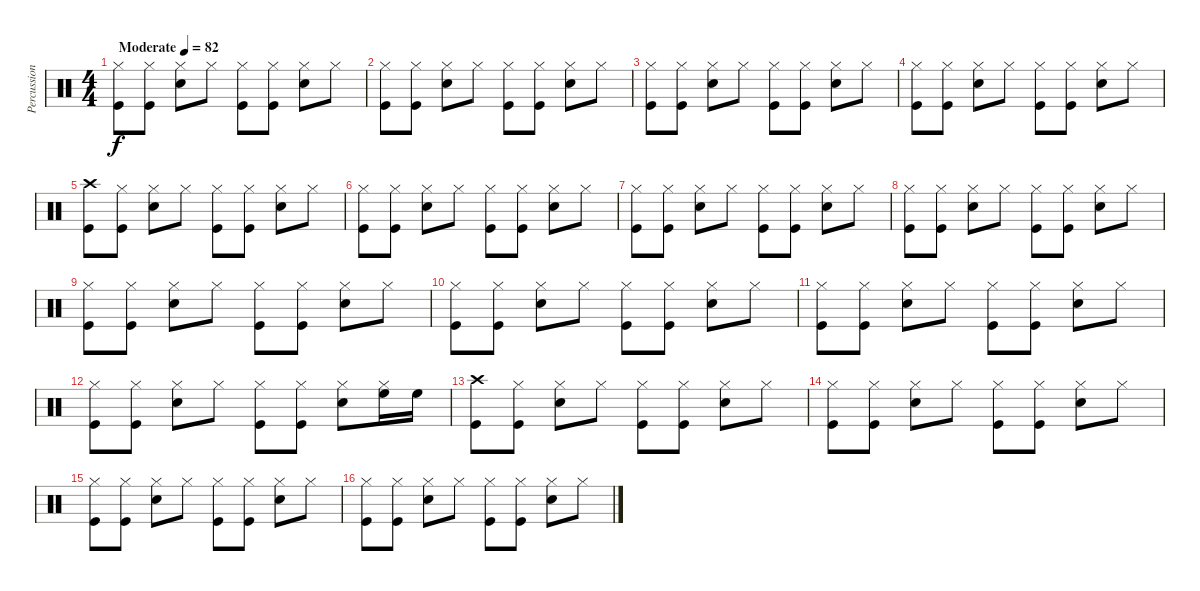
\track ("Percussioni" "Percussion") {instrument percussion}
\staff {score}
\articulation defaults
\ts (4 4)
\tempo (82 "Moderate")
\clef neutral
\ks c
("Hi-Hat (closed)" "Kick (hit)").8{dy f} ("Hi-Hat (closed)" "Kick (hit)").8 ("Hi-Hat (closed)" "Snare (hit) 2").8 "Hi-Hat (closed)".8 ("Hi-Hat (closed)" "Kick (hit)").8 ("Hi-Hat (closed)" "Kick (hit)").8 ("Hi-Hat (closed)" "Snare (hit) 2").8 "Hi-Hat (closed)".8 |
("Hi-Hat (closed)" "Kick (hit)").8 ("Hi-Hat (closed)" "Kick (hit)").8 ("Hi-Hat (closed)" "Snare (hit) 2").8 "Hi-Hat (closed)".8 ("Hi-Hat (closed)" "Kick (hit)").8 ("Hi-Hat (closed)" "Kick (hit)").8 ("Hi-Hat (closed)" "Snare (hit) 2").8 "Hi-Hat (closed)".8 |
("Hi-Hat (closed)" "Kick (hit)").8 ("Hi-Hat (closed)" "Kick (hit)").8 ("Hi-Hat (closed)" "Snare (hit) 2").8 "Hi-Hat (closed)".8 ("Hi-Hat (closed)" "Kick (hit)").8 ("Hi-Hat (closed)" "Kick (hit)").8 ("Hi-Hat (closed)" "Snare (hit) 2").8 "Hi-Hat (closed)".8 |
("Hi-Hat (closed)" "Kick (hit)").8 ("Hi-Hat (closed)" "Kick (hit)").8 ("Hi-Hat (closed)" "Snare (hit) 2").8 "Hi-Hat (closed)".8 ("Hi-Hat (closed)" "Kick (hit)").8 ("Hi-Hat (closed)" "Kick (hit)").8 ("Hi-Hat (closed)" "Snare (hit) 2").8 "Hi-Hat (closed)".8 |
("Crash high (hit)" "Kick (hit)").8 ("Hi-Hat (closed)" "Kick (hit)").8 ("Hi-Hat (closed)" "Snare (hit) 2").8 "Hi-Hat (closed)".8 ("Hi-Hat (closed)" "Kick (hit)").8 ("Hi-Hat (closed)" "Kick (hit)").8 ("Hi-Hat (closed)" "Snare (hit) 2").8 "Hi-Hat (closed)".8 |
("Hi-Hat (closed)" "Kick (hit)").8 ("Hi-Hat (closed)" "Kick (hit)").8 ("Hi-Hat (closed)" "Snare (hit) 2").8 "Hi-Hat (closed)".8 ("Hi-Hat (closed)" "Kick (hit)").8 ("Hi-Hat (closed)" "Kick (hit)").8 ("Hi-Hat (closed)" "Snare (hit) 2").8 "Hi-Hat (closed)".8 |
("Hi-Hat (closed)" "Kick (hit)").8 ("Hi-Hat (closed)" "Kick (hit)").8 ("Hi-Hat (closed)" "Snare (hit) 2").8 "Hi-Hat (closed)".8 ("Hi-Hat (closed)" "Kick (hit)").8 ("Hi-Hat (closed)" "Kick (hit)").8 ("Hi-Hat (closed)" "Snare (hit) 2").8 "Hi-Hat (closed)".8 |
("Hi-Hat (closed)" "Kick (hit)").8 ("Hi-Hat (closed)" "Kick (hit)").8 ("Hi-Hat (closed)" "Snare (hit) 2").8 "Hi-Hat (closed)".8 ("Hi-Hat (closed)" "Kick (hit)").8 ("Hi-Hat (closed)" "Kick (hit)").8 ("Hi-Hat (closed)" "Snare (hit) 2").8 "Hi-Hat (closed)".8 |
("Hi-Hat (closed)" "Kick (hit)").8 ("Hi-Hat (closed)" "Kick (hit)").8 ("Hi-Hat (closed)" "Snare (hit) 2").8 "Hi-Hat (closed)".8 ("Hi-Hat (closed)" "Kick (hit)").8 ("Hi-Hat (closed)" "Kick (hit)").8 ("Hi-Hat (closed)" "Snare (hit) 2").8 "Hi-Hat (closed)".8 |
("Hi-Hat (closed)" "Kick (hit)").8 ("Hi-Hat (closed)" "Kick (hit)").8 ("Hi-Hat (closed)" "Snare (hit) 2").8 "Hi-Hat (closed)".8 ("Hi-Hat (closed)" "Kick (hit)").8 ("Hi-Hat (closed)" "Kick (hit)").8 ("Hi-Hat (closed)" "Snare (hit) 2").8 "Hi-Hat (closed)".8 |
("Hi-Hat (closed)" "Kick (hit)").8 ("Hi-Hat (closed)" "Kick (hit)").8 ("Hi-Hat (closed)" "Snare (hit) 2").8 "Hi-Hat (closed)".8 ("Hi-Hat (closed)" "Kick (hit)").8 ("Hi-Hat (closed)" "Kick (hit)").8 ("Hi-Hat (closed)" "Snare (hit) 2").8 "Hi-Hat (closed)".8 |
("Hi-Hat (closed)" "Kick (hit)").8 ("Hi-Hat (closed)" "Kick (hit)").8 ("Hi-Hat (closed)" "Snare (hit) 2").8 "Hi-Hat (closed)".8 ("Hi-Hat (closed)" "Kick (hit)").8 ("Hi-Hat (closed)" "Kick (hit)").8 ("Hi-Hat (closed)" "Snare (hit) 2").8 ("Hi-Hat (closed)" "High Floor Tom (hit)").16 "High Floor Tom (hit)".16 |
("Crash high (hit)" "Kick (hit)").8 ("Hi-Hat (closed)" "Kick (hit)").8 ("Hi-Hat (closed)" "Snare (hit) 2").8 "Hi-Hat (closed)".8 ("Hi-Hat (closed)" "Kick (hit)").8 ("Hi-Hat (closed)" "Kick (hit)").8 ("Hi-Hat (closed)" "Snare (hit) 2").8 "Hi-Hat (closed)".8 |
("Hi-Hat (closed)" "Kick (hit)").8 ("Hi-Hat (closed)" "Kick (hit)").8 ("Hi-Hat (closed)" "Snare (hit) 2").8 "Hi-Hat (closed)".8 ("Hi-Hat (closed)" "Kick (hit)").8 ("Hi-Hat (closed)" "Kick (hit)").8 ("Hi-Hat (closed)" "Snare (hit) 2").8 "Hi-Hat (closed)".8 |
("Hi-Hat (closed)" "Kick (hit)").8 ("Hi-Hat (closed)" "Kick (hit)").8 ("Hi-Hat (closed)" "Snare (hit) 2").8 "Hi-Hat (closed)".8 ("Hi-Hat (closed)" "Kick (hit)").8 ("Hi-Hat (closed)" "Kick (hit)").8 ("Hi-Hat (closed)" "Snare (hit) 2").8 "Hi-Hat (closed)".8 |
("Hi-Hat (closed)" "Kick (hit)").8 ("Hi-Hat (closed)" "Kick (hit)").8 ("Hi-Hat (closed)" "Snare (hit) 2").8 "Hi-Hat (closed)".8 ("Hi-Hat (closed)" "Kick (hit)").8 ("Hi-Hat (closed)" "Kick (hit)").8 ("Hi-Hat (closed)" "Snare (hit) 2").8 "Hi-Hat (closed)".8
